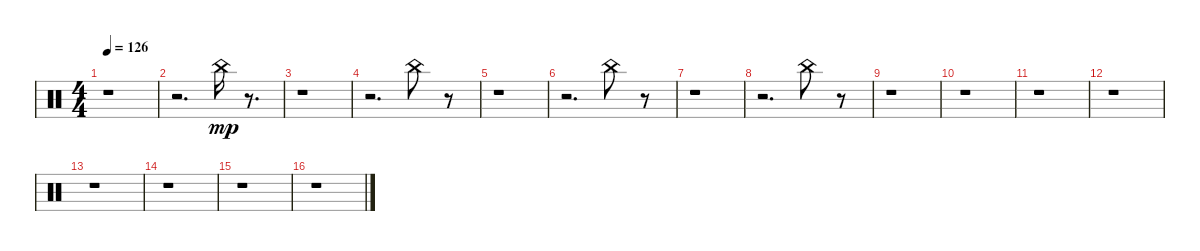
\track "" {instrument percussion}
\staff {score}
\articulation defaults
\ts (4 4)
\tempo 126
\clef neutral
\ks c
r.1{dy mp} |
r.2{d} "China (hit)".16 r.8{d} |
r.1 |
r.2{d} "China (hit)".8 r.8 |
r.1 |
r.2{d} "China (hit)".8 r.8 |
r.1 |
r.2{d} "China (hit)".8 r.8 |
r.1 |
r.1 |
r.1 |
r.1 |
r.1 |
r.1 |
r.1 |
r.1
